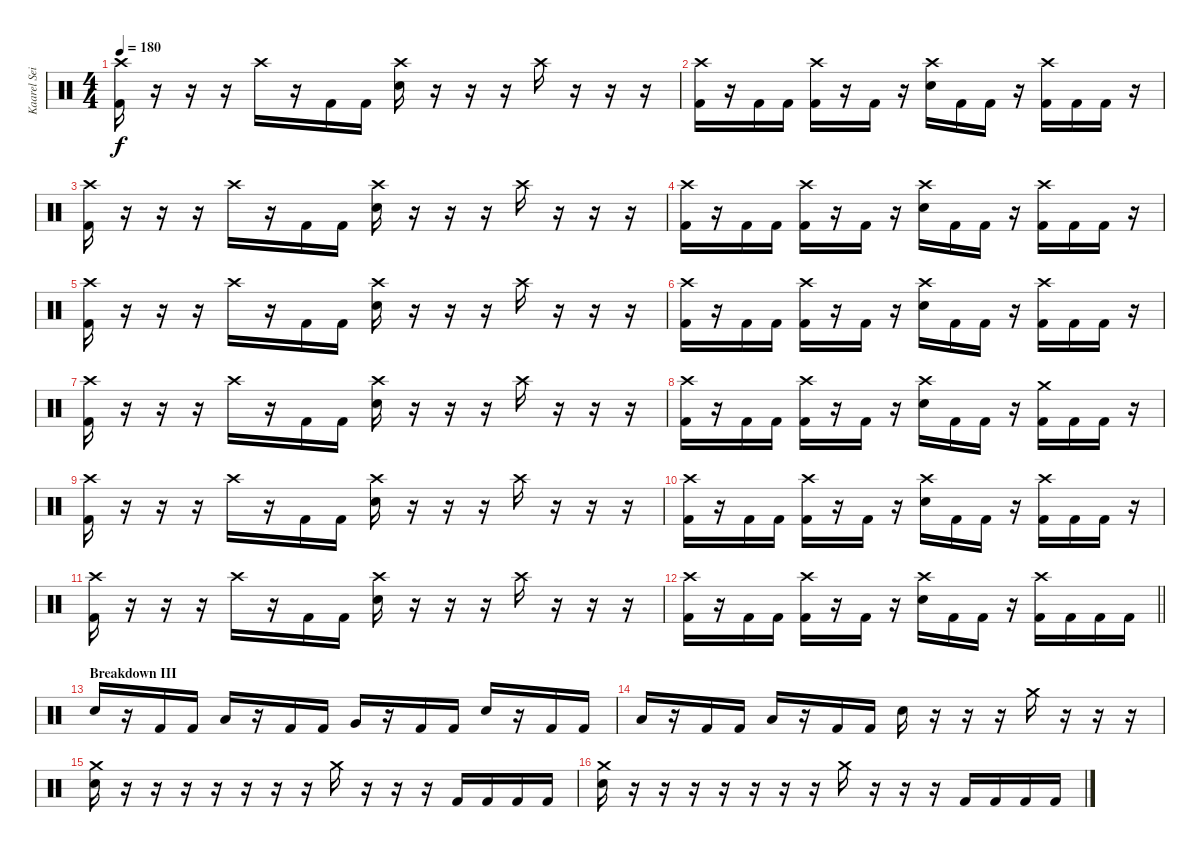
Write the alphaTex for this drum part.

\track ("Kaarel Sein" "Kaarel Sei") {instrument percussion}
\staff {score}
\articulation defaults
\ts (4 4)
\tempo 180
\clef neutral
\ks c
("Crash high (hit)" "Kick (hit) 2").16{dy f} r.16 r.16 r.16 "Crash high (hit)".16 r.16 "Kick (hit) 2".16 "Kick (hit) 2".16 ("Crash high (hit)" "Electric Snare (hit)").16 r.16 r.16 r.16 "Crash high (hit)".16 r.16 r.16 r.16 |
("Crash high (hit)" "Kick (hit) 2").16 r.16 "Kick (hit) 2".16 "Kick (hit) 2".16 ("Crash high (hit)" "Kick (hit) 2").16 r.16 "Kick (hit) 2".16 r.16 ("Crash high (hit)" "Electric Snare (hit)").16 "Kick (hit) 2".16 "Kick (hit) 2".16 r.16 ("Crash high (hit)" "Kick (hit) 2").16 "Kick (hit) 2".16 "Kick (hit) 2".16 r.16 |
("Crash high (hit)" "Kick (hit) 2").16 r.16 r.16 r.16 "Crash high (hit)".16 r.16 "Kick (hit) 2".16 "Kick (hit) 2".16 ("Crash high (hit)" "Electric Snare (hit)").16 r.16 r.16 r.16 "Crash high (hit)".16 r.16 r.16 r.16 |
("Crash high (hit)" "Kick (hit) 2").16 r.16 "Kick (hit) 2".16 "Kick (hit) 2".16 ("Crash high (hit)" "Kick (hit) 2").16 r.16 "Kick (hit) 2".16 r.16 ("Crash high (hit)" "Electric Snare (hit)").16 "Kick (hit) 2".16 "Kick (hit) 2".16 r.16 ("Crash high (hit)" "Kick (hit) 2").16 "Kick (hit) 2".16 "Kick (hit) 2".16 r.16 |
("Crash high (hit)" "Kick (hit) 2").16 r.16 r.16 r.16 "Crash high (hit)".16 r.16 "Kick (hit) 2".16 "Kick (hit) 2".16 ("Crash high (hit)" "Electric Snare (hit)").16 r.16 r.16 r.16 "Crash high (hit)".16 r.16 r.16 r.16 |
("Crash high (hit)" "Kick (hit) 2").16 r.16 "Kick (hit) 2".16 "Kick (hit) 2".16 ("Crash high (hit)" "Kick (hit) 2").16 r.16 "Kick (hit) 2".16 r.16 ("Crash high (hit)" "Electric Snare (hit)").16 "Kick (hit) 2".16 "Kick (hit) 2".16 r.16 ("Crash high (hit)" "Kick (hit) 2").16 "Kick (hit) 2".16 "Kick (hit) 2".16 r.16 |
("Crash high (hit)" "Kick (hit) 2").16 r.16 r.16 r.16 "Crash high (hit)".16 r.16 "Kick (hit) 2".16 "Kick (hit) 2".16 ("Crash high (hit)" "Electric Snare (hit)").16 r.16 r.16 r.16 "Crash high (hit)".16 r.16 r.16 r.16 |
("Crash high (hit)" "Kick (hit) 2").16 r.16 "Kick (hit) 2".16 "Kick (hit) 2".16 ("Crash high (hit)" "Kick (hit) 2").16 r.16 "Kick (hit) 2".16 r.16 ("Crash high (hit)" "Electric Snare (hit)").16 "Kick (hit) 2".16 "Kick (hit) 2".16 r.16 ("Crash medium (hit)" "Kick (hit) 2").16 "Kick (hit) 2".16 "Kick (hit) 2".16 r.16 |
("Crash high (hit)" "Kick (hit) 2").16 r.16 r.16 r.16 "Crash high (hit)".16 r.16 "Kick (hit) 2".16 "Kick (hit) 2".16 ("Crash high (hit)" "Electric Snare (hit)").16 r.16 r.16 r.16 "Crash high (hit)".16 r.16 r.16 r.16 |
("Crash high (hit)" "Kick (hit) 2").16 r.16 "Kick (hit) 2".16 "Kick (hit) 2".16 ("Crash high (hit)" "Kick (hit) 2").16 r.16 "Kick (hit) 2".16 r.16 ("Crash high (hit)" "Electric Snare (hit)").16 "Kick (hit) 2".16 "Kick (hit) 2".16 r.16 ("Crash high (hit)" "Kick (hit) 2").16 "Kick (hit) 2".16 "Kick (hit) 2".16 r.16 |
("Crash high (hit)" "Kick (hit) 2").16 r.16 r.16 r.16 "Crash high (hit)".16 r.16 "Kick (hit) 2".16 "Kick (hit) 2".16 ("Crash high (hit)" "Electric Snare (hit)").16 r.16 r.16 r.16 "Crash high (hit)".16 r.16 r.16 r.16 |
\barLineRight lightlight
("Crash high (hit)" "Kick (hit) 2").16 r.16 "Kick (hit) 2".16 "Kick (hit) 2".16 ("Crash high (hit)" "Kick (hit) 2").16 r.16 "Kick (hit) 2".16 r.16 ("Crash high (hit)" "Electric Snare (hit)").16 "Kick (hit) 2".16 "Kick (hit) 2".16 r.16 ("Crash high (hit)" "Kick (hit) 2").16 "Kick (hit) 2".16 "Kick (hit) 2".16 "Kick (hit) 2".16 |
\section ("" "Breakdown III")
"Electric Snare (hit)".16 r.16 "Kick (hit) 2".16 "Kick (hit) 2".16 "Low Floor Tom (hit)".16 r.16 "Kick (hit) 2".16 "Kick (hit) 2".16 "Very Low Tom (hit)".16 r.16 "Kick (hit) 2".16 "Kick (hit) 2".16 "Electric Snare (hit)".16 r.16 "Kick (hit) 2".16 "Kick (hit) 2".16 |
"Low Tom (hit)".16 r.16 "Kick (hit) 2".16 "Kick (hit) 2".16 "Low Floor Tom (hit)".16 r.16 "Kick (hit) 2".16 "Kick (hit) 2".16 "Electric Snare (hit)".16 r.16 r.16 r.16 "Crash medium (hit)".16 r.16 r.16 r.16 |
("Crash medium (hit)" "Electric Snare (hit)").16 r.16 r.16 r.16 r.16 r.16 r.16 r.16 "Crash medium (hit)".16 r.16 r.16 r.16 "Kick (hit) 2".16 "Kick (hit) 2".16 "Kick (hit) 2".16 "Kick (hit) 2".16 |
("Crash medium (hit)" "Electric Snare (hit)").16 r.16 r.16 r.16 r.16 r.16 r.16 r.16 "Crash medium (hit)".16 r.16 r.16 r.16 "Kick (hit) 2".16 "Kick (hit) 2".16 "Kick (hit) 2".16 "Kick (hit) 2".16
